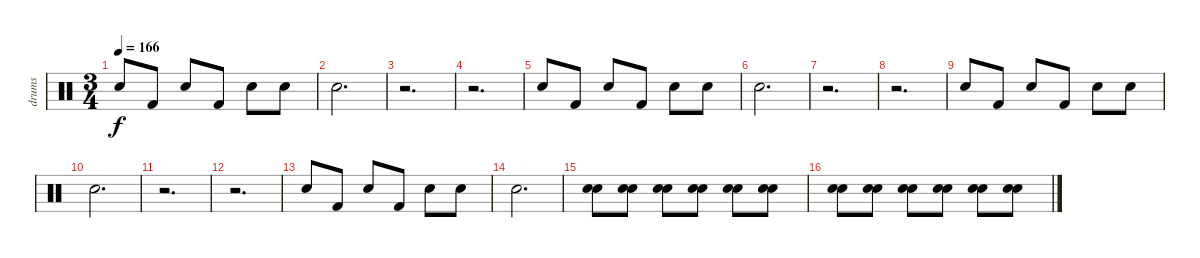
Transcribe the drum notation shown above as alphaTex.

\track ("drums" "drums") {instrument percussion}
\staff {score}
\articulation defaults
\ts (3 4)
\tempo 166
\clef neutral
\ks c "Electric Snare (hit)".8{dy f} "Kick (hit) 2".8 "Electric Snare (hit)".8 "Kick (hit) 2".8 "Electric Snare (hit)".8 "Electric Snare (hit)".8
|
"Electric Snare (hit)".2{d} |
r.2{d} |
r.2{d} |
"Electric Snare (hit)".8 "Kick (hit) 2".8 "Electric Snare (hit)".8 "Kick (hit) 2".8 "Electric Snare (hit)".8 "Electric Snare (hit)".8 |
"Electric Snare (hit)".2{d} |
r.2{d} |
r.2{d} |
"Electric Snare (hit)".8 "Kick (hit) 2".8 "Electric Snare (hit)".8 "Kick (hit) 2".8 "Electric Snare (hit)".8 "Electric Snare (hit)".8 |
"Electric Snare (hit)".2{d} |
r.2{d} |
r.2{d} |
"Electric Snare (hit)".8 "Kick (hit) 2".8 "Electric Snare (hit)".8 "Kick (hit) 2".8 "Electric Snare (hit)".8 "Electric Snare (hit)".8 |
"Electric Snare (hit)".2{d} |
("Snare (hit) 2" "Electric Snare (hit)").8 ("Snare (hit) 2" "Electric Snare (hit)").8 ("Snare (hit) 2" "Electric Snare (hit)").8 ("Snare (hit) 2" "Electric Snare (hit)").8 ("Snare (hit) 2" "Electric Snare (hit)").8 ("Snare (hit) 2" "Electric Snare (hit)").8 |
("Snare (hit) 2" "Electric Snare (hit)").8 ("Snare (hit) 2" "Electric Snare (hit)").8 ("Snare (hit) 2" "Electric Snare (hit)").8 ("Snare (hit) 2" "Electric Snare (hit)").8 ("Snare (hit) 2" "Electric Snare (hit)").8 ("Snare (hit) 2" "Electric Snare (hit)").8
